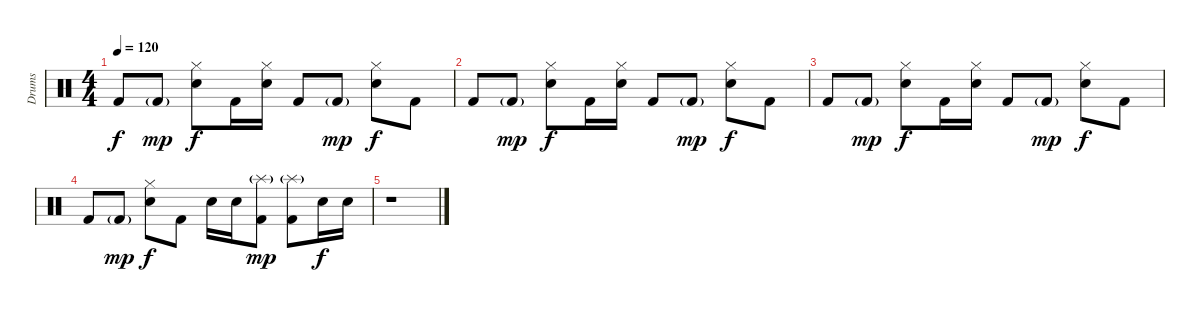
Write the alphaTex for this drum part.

\track ("Drums" "Drums") {instrument percussion}
\staff {score}
\articulation defaults
\ts (4 4)
\tempo 120
\clef neutral
\ks c "Kick (hit) 2".8{dy f} "Kick (hit) 2"{g}.8{dy mp}
("Hi-Hat (closed)" "Snare (hit) 2").8{dy f} "Kick (hit) 2".16 ("Hi-Hat (closed)" "Snare (hit) 2").16 "Kick (hit) 2".8 "Kick (hit) 2"{g}.8{dy mp} ("Hi-Hat (closed)" "Snare (hit) 2").8{dy f} "Kick (hit) 2".8 |
"Kick (hit) 2".8 "Kick (hit) 2"{g}.8{dy mp} ("Hi-Hat (closed)" "Snare (hit) 2").8{dy f} "Kick (hit) 2".16 ("Hi-Hat (closed)" "Snare (hit) 2").16 "Kick (hit) 2".8 "Kick (hit) 2"{g}.8{dy mp} ("Hi-Hat (closed)" "Snare (hit) 2").8{dy f} "Kick (hit) 2".8 |
"Kick (hit) 2".8 "Kick (hit) 2"{g}.8{dy mp} ("Hi-Hat (closed)" "Snare (hit) 2").8{dy f} "Kick (hit) 2".16 ("Hi-Hat (closed)" "Snare (hit) 2").16 "Kick (hit) 2".8 "Kick (hit) 2"{g}.8{dy mp} ("Hi-Hat (closed)" "Snare (hit) 2").8{dy f} "Kick (hit) 2".8 |
"Kick (hit) 2".8 "Kick (hit) 2"{g}.8{dy mp} ("Hi-Hat (closed)" "Snare (hit) 2").8{dy f} "Kick (hit) 2".8 "Snare (hit) 2".16 "Snare (hit) 2".16 ("Splash (hit)"{g} "Kick (hit) 2").8{dy mp} ("Splash (hit)"{g} "Kick (hit) 2").8 "Snare (hit) 2".16{dy f} "Snare (hit) 2".16 |
r.1
